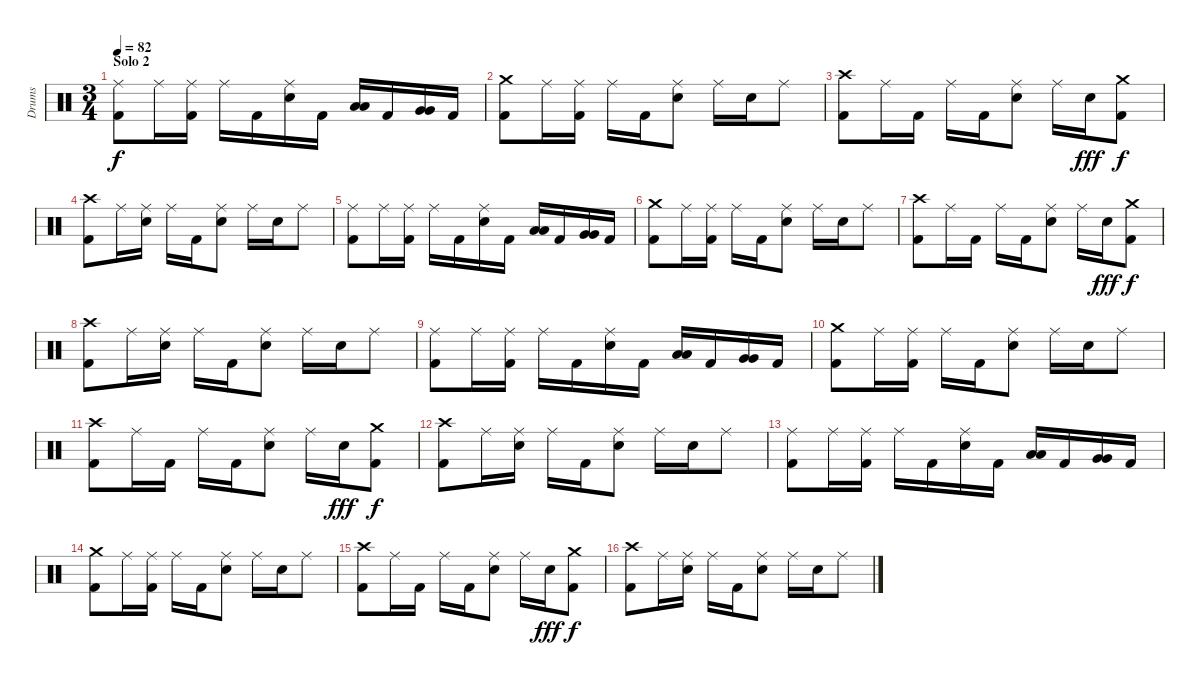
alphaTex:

\track ("Drums" "Drums") {instrument percussion}
\staff {score}
\articulation defaults
\ts (3 4)
\section ("" "Solo 2")
\tempo 82
\clef neutral
\ks c
("Ride (middle)" "Kick (hit) 2").8{dy f} "Ride (middle)".16 ("Ride (middle)" "Kick (hit) 2").16 "Ride (middle)".16 "Kick (hit) 2".16 ("Ride (middle)" "Electric Snare (hit)").16 "Kick (hit) 2".16 ("Low Tom (hit)" "Low Tom (hit)").16{bd 60} "Kick (hit) 2".16 ("Very Low Tom (hit)" "Very Low Tom (hit)").16{bd 60} "Kick (hit) 2".16 |
("Crash medium (hit)" "Kick (hit) 2").8 "Ride (middle)".16 ("Ride (middle)" "Kick (hit) 2").16 "Ride (middle)".16 "Kick (hit) 2".16 ("Ride (middle)" "Electric Snare (hit)").8 "Ride (middle)".16 "Electric Snare (hit)".16 "Ride (middle)".8 |
("Crash high (hit)" "Kick (hit) 2").8 "Ride (middle)".16 "Kick (hit) 2".16 "Ride (middle)".16 "Kick (hit) 2".16 ("Ride (middle)" "Electric Snare (hit)").8 "Ride (middle)".16 "Electric Snare (hit)".16{dy fff} ("Crash medium (hit)" "Kick (hit) 2").8{dy f} |
("Crash high (hit)" "Kick (hit) 2").8 "Ride (middle)".16 ("Ride (middle)" "Electric Snare (hit)").16 "Ride (middle)".16 "Kick (hit) 2".16 ("Ride (middle)" "Electric Snare (hit)").8 "Ride (middle)".16 "Electric Snare (hit)".16 "Ride (middle)".8 |
("Ride (middle)" "Kick (hit) 2").8 "Ride (middle)".16 ("Ride (middle)" "Kick (hit) 2").16 "Ride (middle)".16 "Kick (hit) 2".16 ("Ride (middle)" "Electric Snare (hit)").16 "Kick (hit) 2".16 ("Low Tom (hit)" "Low Tom (hit)").16{bd 60} "Kick (hit) 2".16 ("Very Low Tom (hit)" "Very Low Tom (hit)").16{bd 60} "Kick (hit) 2".16 |
("Crash medium (hit)" "Kick (hit) 2").8 "Ride (middle)".16 ("Ride (middle)" "Kick (hit) 2").16 "Ride (middle)".16 "Kick (hit) 2".16 ("Ride (middle)" "Electric Snare (hit)").8 "Ride (middle)".16 "Electric Snare (hit)".16 "Ride (middle)".8 |
("Crash high (hit)" "Kick (hit) 2").8 "Ride (middle)".16 "Kick (hit) 2".16 "Ride (middle)".16 "Kick (hit) 2".16 ("Ride (middle)" "Electric Snare (hit)").8 "Ride (middle)".16 "Electric Snare (hit)".16{dy fff} ("Crash medium (hit)" "Kick (hit) 2").8{dy f} |
("Crash high (hit)" "Kick (hit) 2").8 "Ride (middle)".16 ("Ride (middle)" "Electric Snare (hit)").16 "Ride (middle)".16 "Kick (hit) 2".16 ("Ride (middle)" "Electric Snare (hit)").8 "Ride (middle)".16 "Electric Snare (hit)".16 "Ride (middle)".8 |
("Ride (middle)" "Kick (hit) 2").8 "Ride (middle)".16 ("Ride (middle)" "Kick (hit) 2").16 "Ride (middle)".16 "Kick (hit) 2".16 ("Ride (middle)" "Electric Snare (hit)").16 "Kick (hit) 2".16 ("Low Tom (hit)" "Low Tom (hit)").16{bd 60} "Kick (hit) 2".16 ("Very Low Tom (hit)" "Very Low Tom (hit)").16{bd 60} "Kick (hit) 2".16 |
("Crash medium (hit)" "Kick (hit) 2").8 "Ride (middle)".16 ("Ride (middle)" "Kick (hit) 2").16 "Ride (middle)".16 "Kick (hit) 2".16 ("Ride (middle)" "Electric Snare (hit)").8 "Ride (middle)".16 "Electric Snare (hit)".16 "Ride (middle)".8 |
("Crash high (hit)" "Kick (hit) 2").8 "Ride (middle)".16 "Kick (hit) 2".16 "Ride (middle)".16 "Kick (hit) 2".16 ("Ride (middle)" "Electric Snare (hit)").8 "Ride (middle)".16 "Electric Snare (hit)".16{dy fff} ("Crash medium (hit)" "Kick (hit) 2").8{dy f} |
("Crash high (hit)" "Kick (hit) 2").8 "Ride (middle)".16 ("Ride (middle)" "Electric Snare (hit)").16 "Ride (middle)".16 "Kick (hit) 2".16 ("Ride (middle)" "Electric Snare (hit)").8 "Ride (middle)".16 "Electric Snare (hit)".16 "Ride (middle)".8 |
("Ride (middle)" "Kick (hit) 2").8 "Ride (middle)".16 ("Ride (middle)" "Kick (hit) 2").16 "Ride (middle)".16 "Kick (hit) 2".16 ("Ride (middle)" "Electric Snare (hit)").16 "Kick (hit) 2".16 ("Low Tom (hit)" "Low Tom (hit)").16{bd 60} "Kick (hit) 2".16 ("Very Low Tom (hit)" "Very Low Tom (hit)").16{bd 60} "Kick (hit) 2".16 |
("Crash medium (hit)" "Kick (hit) 2").8 "Ride (middle)".16 ("Ride (middle)" "Kick (hit) 2").16 "Ride (middle)".16 "Kick (hit) 2".16 ("Ride (middle)" "Electric Snare (hit)").8 "Ride (middle)".16 "Electric Snare (hit)".16 "Ride (middle)".8 |
("Crash high (hit)" "Kick (hit) 2").8 "Ride (middle)".16 "Kick (hit) 2".16 "Ride (middle)".16 "Kick (hit) 2".16 ("Ride (middle)" "Electric Snare (hit)").8 "Ride (middle)".16 "Electric Snare (hit)".16{dy fff} ("Crash medium (hit)" "Kick (hit) 2").8{dy f} |
("Crash high (hit)" "Kick (hit) 2").8 "Ride (middle)".16 ("Ride (middle)" "Electric Snare (hit)").16 "Ride (middle)".16 "Kick (hit) 2".16 ("Ride (middle)" "Electric Snare (hit)").8 "Ride (middle)".16 "Electric Snare (hit)".16 "Ride (middle)".8
